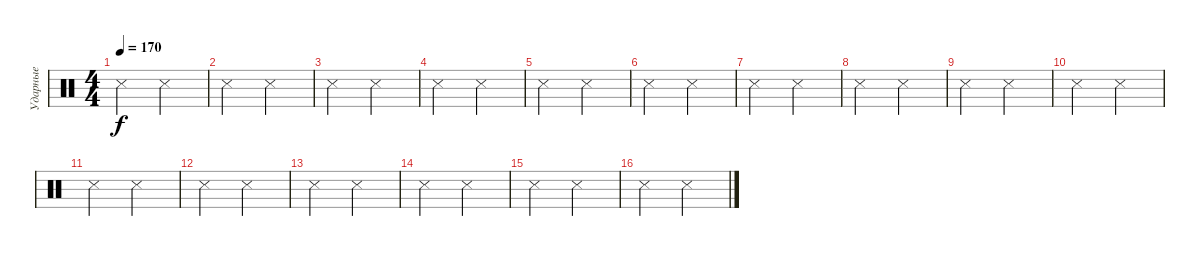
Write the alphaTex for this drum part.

\track ("Ударные" "Ударные") {instrument percussion}
\staff
\articulation defaults
\ts (4 4)
\tempo 170
\clef neutral
\ks c "Snare (side stick) 3".2{dy f} "Snare (side stick) 3".2
|
"Snare (side stick) 3".2 "Snare (side stick) 3".2 |
"Snare (side stick) 3".2 "Snare (side stick) 3".2 |
"Snare (side stick) 3".2 "Snare (side stick) 3".2 |
"Snare (side stick) 3".2 "Snare (side stick) 3".2 |
"Snare (side stick) 3".2 "Snare (side stick) 3".2 |
"Snare (side stick) 3".2 "Snare (side stick) 3".2 |
"Snare (side stick) 3".2 "Snare (side stick) 3".2 |
"Snare (side stick) 3".2 "Snare (side stick) 3".2 |
"Snare (side stick) 3".2 "Snare (side stick) 3".2 |
"Snare (side stick) 3".2 "Snare (side stick) 3".2 |
"Snare (side stick) 3".2 "Snare (side stick) 3".2 |
"Snare (side stick) 3".2 "Snare (side stick) 3".2 |
"Snare (side stick) 3".2 "Snare (side stick) 3".2 |
"Snare (side stick) 3".2 "Snare (side stick) 3".2 |
"Snare (side stick) 3".2 "Snare (side stick) 3".2
